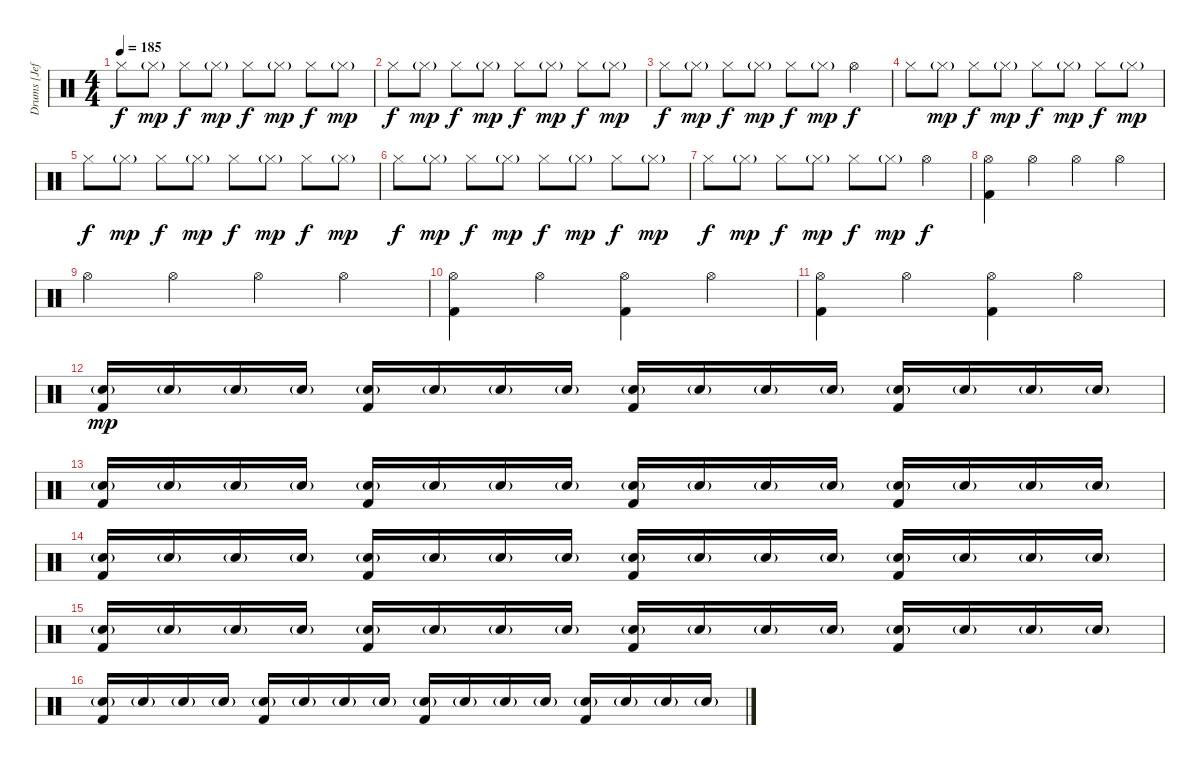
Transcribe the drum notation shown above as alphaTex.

\track ("Drums [Jeff]" "Drums [Jef") {instrument percussion}
\staff {score}
\articulation defaults
\ts (4 4)
\tempo 185
\clef neutral
\ks c "Hi-Hat (closed)".8{dy f} "Hi-Hat (closed)"{g}.8{dy mp} "Hi-Hat (closed)".8{dy f} "Hi-Hat (closed)"{g}.8{dy mp} "Hi-Hat (closed)".8{dy f} "Hi-Hat (closed)"{g}.8{dy mp} "Hi-Hat (closed)".8{dy f} "Hi-Hat (closed)"{g}.8{dy mp}
|
"Hi-Hat (closed)".8{dy f} "Hi-Hat (closed)"{g}.8{dy mp} "Hi-Hat (closed)".8{dy f} "Hi-Hat (closed)"{g}.8{dy mp} "Hi-Hat (closed)".8{dy f} "Hi-Hat (closed)"{g}.8{dy mp} "Hi-Hat (closed)".8{dy f} "Hi-Hat (closed)"{g}.8{dy mp} |
"Hi-Hat (closed)".8{dy f} "Hi-Hat (closed)"{g}.8{dy mp} "Hi-Hat (closed)".8{dy f} "Hi-Hat (closed)"{g}.8{dy mp} "Hi-Hat (closed)".8{dy f} "Hi-Hat (closed)"{g}.8{dy mp} "Hi-Hat (open)".4{dy f} |
"Hi-Hat (closed)".8 "Hi-Hat (closed)"{g}.8{dy mp} "Hi-Hat (closed)".8{dy f} "Hi-Hat (closed)"{g}.8{dy mp} "Hi-Hat (closed)".8{dy f} "Hi-Hat (closed)"{g}.8{dy mp} "Hi-Hat (closed)".8{dy f} "Hi-Hat (closed)"{g}.8{dy mp} |
"Hi-Hat (closed)".8{dy f} "Hi-Hat (closed)"{g}.8{dy mp} "Hi-Hat (closed)".8{dy f} "Hi-Hat (closed)"{g}.8{dy mp} "Hi-Hat (closed)".8{dy f} "Hi-Hat (closed)"{g}.8{dy mp} "Hi-Hat (closed)".8{dy f} "Hi-Hat (closed)"{g}.8{dy mp} |
"Hi-Hat (closed)".8{dy f} "Hi-Hat (closed)"{g}.8{dy mp} "Hi-Hat (closed)".8{dy f} "Hi-Hat (closed)"{g}.8{dy mp} "Hi-Hat (closed)".8{dy f} "Hi-Hat (closed)"{g}.8{dy mp} "Hi-Hat (closed)".8{dy f} "Hi-Hat (closed)"{g}.8{dy mp} |
"Hi-Hat (closed)".8{dy f} "Hi-Hat (closed)"{g}.8{dy mp} "Hi-Hat (closed)".8{dy f} "Hi-Hat (closed)"{g}.8{dy mp} "Hi-Hat (closed)".8{dy f} "Hi-Hat (closed)"{g}.8{dy mp} "Hi-Hat (open)".4{dy f} |
("Hi-Hat (open)" "Kick (hit) 2").4{volume 7} "Hi-Hat (open)".4 "Hi-Hat (open)".4 "Hi-Hat (open)".4 |
"Hi-Hat (open)".4{volume 14} "Hi-Hat (open)".4 "Hi-Hat (open)".4 "Hi-Hat (open)".4 |
("Hi-Hat (open)" "Kick (hit) 2").4 "Hi-Hat (open)".4 ("Hi-Hat (open)" "Kick (hit) 2").4 "Hi-Hat (open)".4 |
("Hi-Hat (open)" "Kick (hit) 2").4 "Hi-Hat (open)".4 ("Hi-Hat (open)" "Kick (hit) 2").4 "Hi-Hat (open)".4 |
("Electric Snare (hit)"{g} "Kick (hit) 2").16{dy mp} "Electric Snare (hit)"{g}.16 "Electric Snare (hit)"{g}.16 "Electric Snare (hit)"{g}.16 ("Electric Snare (hit)"{g} "Kick (hit) 2").16 "Electric Snare (hit)"{g}.16 "Electric Snare (hit)"{g}.16 "Electric Snare (hit)"{g}.16 ("Electric Snare (hit)"{g} "Kick (hit) 2").16 "Electric Snare (hit)"{g}.16 "Electric Snare (hit)"{g}.16 "Electric Snare (hit)"{g}.16 ("Electric Snare (hit)"{g} "Kick (hit) 2").16 "Electric Snare (hit)"{g}.16 "Electric Snare (hit)"{g}.16 "Electric Snare (hit)"{g}.16 |
("Electric Snare (hit)"{g} "Kick (hit) 2").16 "Electric Snare (hit)"{g}.16 "Electric Snare (hit)"{g}.16 "Electric Snare (hit)"{g}.16 ("Electric Snare (hit)"{g} "Kick (hit) 2").16 "Electric Snare (hit)"{g}.16 "Electric Snare (hit)"{g}.16 "Electric Snare (hit)"{g}.16 ("Electric Snare (hit)"{g} "Kick (hit) 2").16 "Electric Snare (hit)"{g}.16 "Electric Snare (hit)"{g}.16 "Electric Snare (hit)"{g}.16 ("Electric Snare (hit)"{g} "Kick (hit) 2").16 "Electric Snare (hit)"{g}.16 "Electric Snare (hit)"{g}.16 "Electric Snare (hit)"{g}.16 |
("Electric Snare (hit)"{g} "Kick (hit) 2").16 "Electric Snare (hit)"{g}.16 "Electric Snare (hit)"{g}.16 "Electric Snare (hit)"{g}.16 ("Electric Snare (hit)"{g} "Kick (hit) 2").16 "Electric Snare (hit)"{g}.16 "Electric Snare (hit)"{g}.16 "Electric Snare (hit)"{g}.16 ("Electric Snare (hit)"{g} "Kick (hit) 2").16 "Electric Snare (hit)"{g}.16 "Electric Snare (hit)"{g}.16 "Electric Snare (hit)"{g}.16 ("Electric Snare (hit)"{g} "Kick (hit) 2").16 "Electric Snare (hit)"{g}.16 "Electric Snare (hit)"{g}.16 "Electric Snare (hit)"{g}.16 |
("Electric Snare (hit)"{g} "Kick (hit) 2").16 "Electric Snare (hit)"{g}.16 "Electric Snare (hit)"{g}.16 "Electric Snare (hit)"{g}.16 ("Electric Snare (hit)"{g} "Kick (hit) 2").16 "Electric Snare (hit)"{g}.16 "Electric Snare (hit)"{g}.16 "Electric Snare (hit)"{g}.16 ("Electric Snare (hit)"{g} "Kick (hit) 2").16 "Electric Snare (hit)"{g}.16 "Electric Snare (hit)"{g}.16 "Electric Snare (hit)"{g}.16 ("Electric Snare (hit)"{g} "Kick (hit) 2").16 "Electric Snare (hit)"{g}.16 "Electric Snare (hit)"{g}.16 "Electric Snare (hit)"{g}.16 |
("Electric Snare (hit)"{g} "Kick (hit) 2").16 "Electric Snare (hit)"{g}.16 "Electric Snare (hit)"{g}.16 "Electric Snare (hit)"{g}.16 ("Electric Snare (hit)"{g} "Kick (hit) 2").16 "Electric Snare (hit)"{g}.16 "Electric Snare (hit)"{g}.16 "Electric Snare (hit)"{g}.16 ("Electric Snare (hit)"{g} "Kick (hit) 2").16 "Electric Snare (hit)"{g}.16 "Electric Snare (hit)"{g}.16 "Electric Snare (hit)"{g}.16 ("Electric Snare (hit)"{g} "Kick (hit) 2").16 "Electric Snare (hit)"{g}.16 "Electric Snare (hit)"{g}.16 "Electric Snare (hit)"{g}.16
